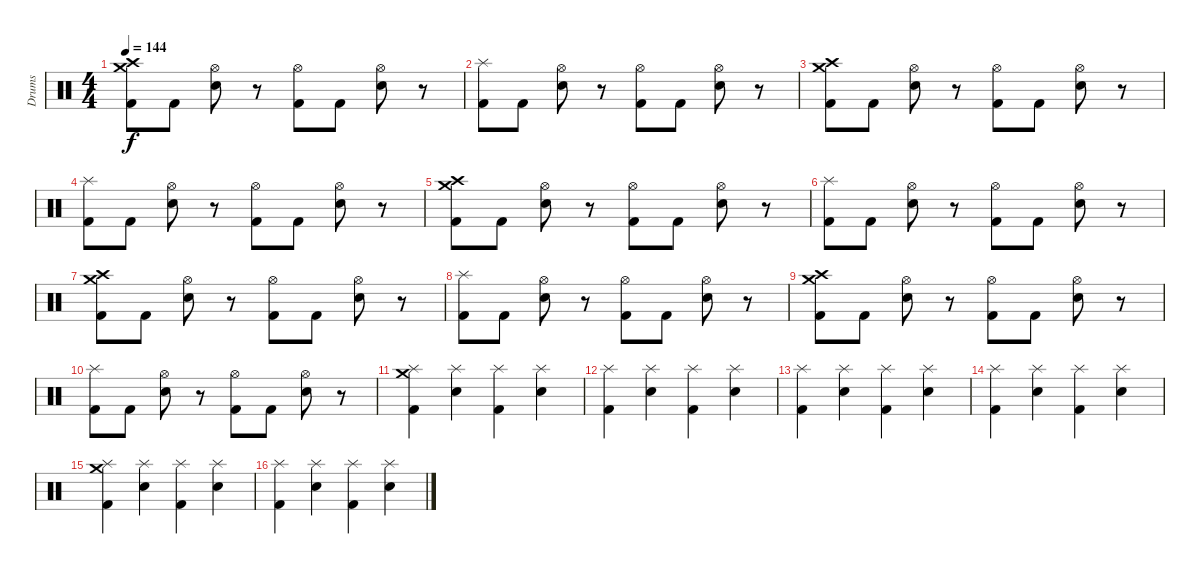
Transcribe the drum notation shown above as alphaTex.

\track ("Drums" "Drums") {instrument percussion}
\staff {score}
\articulation defaults
\ts (4 4)
\tempo 144
\clef neutral
\ks c
("Crash medium (hit)" "Crash high (hit)" "Kick (hit) 2").8{dy f} "Kick (hit) 2".8 ("Hi-Hat (open)" "Snare (hit) 2").8 r.8 ("Hi-Hat (open)" "Kick (hit) 2").8 "Kick (hit) 2".8 ("Hi-Hat (open)" "Snare (hit) 2").8 r.8 |
("Splash (hit)" "Kick (hit) 2").8 "Kick (hit) 2".8 ("Hi-Hat (open)" "Snare (hit) 2").8 r.8 ("Hi-Hat (open)" "Kick (hit) 2").8 "Kick (hit) 2".8 ("Hi-Hat (open)" "Snare (hit) 2").8 r.8 |
("Crash medium (hit)" "Crash high (hit)" "Kick (hit) 2").8 "Kick (hit) 2".8 ("Hi-Hat (open)" "Snare (hit) 2").8 r.8 ("Hi-Hat (open)" "Kick (hit) 2").8 "Kick (hit) 2".8 ("Hi-Hat (open)" "Snare (hit) 2").8 r.8 |
("Splash (hit)" "Kick (hit) 2").8 "Kick (hit) 2".8 ("Hi-Hat (open)" "Snare (hit) 2").8 r.8 ("Hi-Hat (open)" "Kick (hit) 2").8 "Kick (hit) 2".8 ("Hi-Hat (open)" "Snare (hit) 2").8 r.8 |
("Crash medium (hit)" "Crash high (hit)" "Kick (hit) 2").8 "Kick (hit) 2".8 ("Hi-Hat (open)" "Snare (hit) 2").8 r.8 ("Hi-Hat (open)" "Kick (hit) 2").8 "Kick (hit) 2".8 ("Hi-Hat (open)" "Snare (hit) 2").8 r.8 |
("Splash (hit)" "Kick (hit) 2").8 "Kick (hit) 2".8 ("Hi-Hat (open)" "Snare (hit) 2").8 r.8 ("Hi-Hat (open)" "Kick (hit) 2").8 "Kick (hit) 2".8 ("Hi-Hat (open)" "Snare (hit) 2").8 r.8 |
("Crash medium (hit)" "Crash high (hit)" "Kick (hit) 2").8 "Kick (hit) 2".8 ("Hi-Hat (open)" "Snare (hit) 2").8 r.8 ("Hi-Hat (open)" "Kick (hit) 2").8 "Kick (hit) 2".8 ("Hi-Hat (open)" "Snare (hit) 2").8 r.8 |
("Splash (hit)" "Kick (hit) 2").8 "Kick (hit) 2".8 ("Hi-Hat (open)" "Snare (hit) 2").8 r.8 ("Hi-Hat (open)" "Kick (hit) 2").8 "Kick (hit) 2".8 ("Hi-Hat (open)" "Snare (hit) 2").8 r.8 |
("Crash medium (hit)" "Crash high (hit)" "Kick (hit) 2").8 "Kick (hit) 2".8 ("Hi-Hat (open)" "Snare (hit) 2").8 r.8 ("Hi-Hat (open)" "Kick (hit) 2").8 "Kick (hit) 2".8 ("Hi-Hat (open)" "Snare (hit) 2").8 r.8 |
("Splash (hit)" "Kick (hit) 2").8 "Kick (hit) 2".8 ("Hi-Hat (open)" "Snare (hit) 2").8 r.8 ("Hi-Hat (open)" "Kick (hit) 2").8 "Kick (hit) 2".8 ("Hi-Hat (open)" "Snare (hit) 2").8 r.8 |
("Splash (hit)" "Crash medium (hit)" "Kick (hit) 2").4 ("Splash (hit)" "Snare (hit) 2").4 ("Splash (hit)" "Kick (hit) 2").4 ("Splash (hit)" "Snare (hit) 2").4 |
("Splash (hit)" "Kick (hit) 2").4 ("Splash (hit)" "Snare (hit) 2").4 ("Splash (hit)" "Kick (hit) 2").4 ("Splash (hit)" "Snare (hit) 2").4 |
("Splash (hit)" "Kick (hit) 2").4 ("Splash (hit)" "Snare (hit) 2").4 ("Splash (hit)" "Kick (hit) 2").4 ("Splash (hit)" "Snare (hit) 2").4 |
("Splash (hit)" "Kick (hit) 2").4 ("Splash (hit)" "Snare (hit) 2").4 ("Splash (hit)" "Kick (hit) 2").4 ("Splash (hit)" "Snare (hit) 2").4 |
("Splash (hit)" "Crash medium (hit)" "Kick (hit) 2").4 ("Splash (hit)" "Snare (hit) 2").4 ("Splash (hit)" "Kick (hit) 2").4 ("Splash (hit)" "Snare (hit) 2").4 |
("Splash (hit)" "Kick (hit) 2").4 ("Splash (hit)" "Snare (hit) 2").4 ("Splash (hit)" "Kick (hit) 2").4 ("Splash (hit)" "Snare (hit) 2").4
